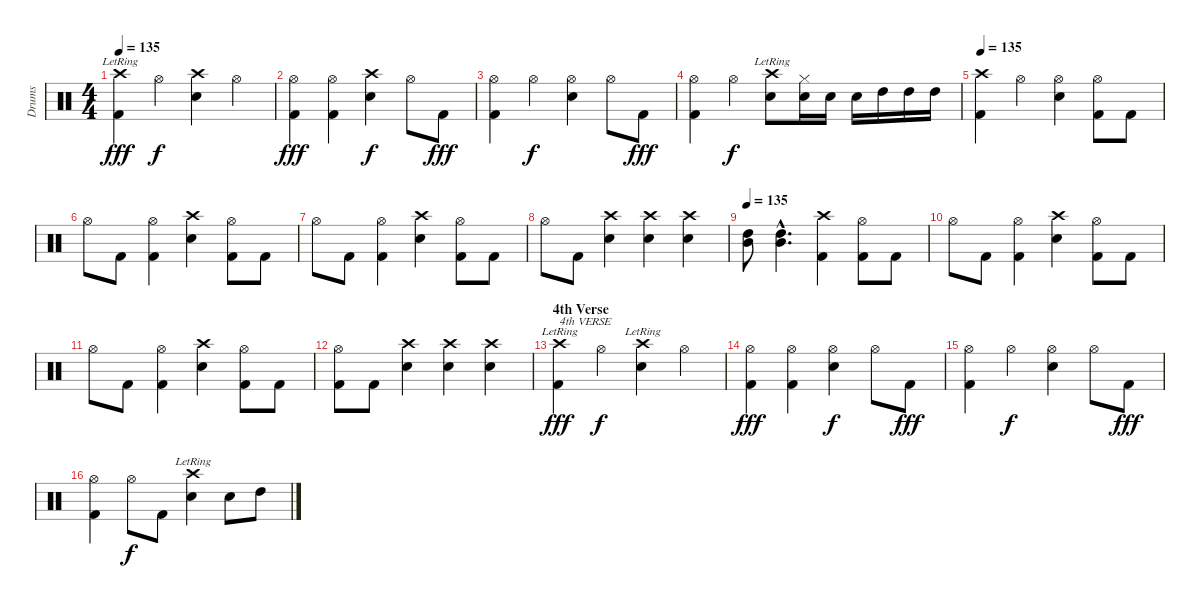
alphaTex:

\track ("Drums" "Drums") {instrument percussion}
\staff {score}
\articulation defaults
\ts (4 4)
\tempo 135
\clef neutral
\ks c
("Crash high (hit)"{lr} "Kick (hit) 2").4{dy fff} "Hi-Hat (open)".4{dy f} ("Crash high (hit)" "Snare (hit) 2").4 "Hi-Hat (open)".4 |
("Hi-Hat (open)" "Kick (hit) 2").4{dy fff} ("Hi-Hat (open)" "Kick (hit) 2").4 ("Crash high (hit)" "Snare (hit) 2").4{dy f} "Hi-Hat (open)".8 "Kick (hit) 2".8{dy fff} |
("Hi-Hat (open)" "Kick (hit) 2").4 "Hi-Hat (open)".4{dy f} ("Hi-Hat (open)" "Snare (hit) 2").4 "Hi-Hat (open)".8 "Kick (hit) 2".8{dy fff} |
("Hi-Hat (open)" "Kick (hit) 2").4 "Hi-Hat (open)".4{dy f} ("Crash high (hit)"{lr} "Snare (hit) 2").8 ("Hi-Hat (closed)" "Snare (hit) 2").16 "Snare (hit) 2".16 "Snare (hit) 2".16 "High Tom (hit)".16 "High Tom (hit)".16 "High Tom (hit)".16 |
\tempo 135
("Crash high (hit)" "Kick (hit) 2").4 "Hi-Hat (open)".4 ("Hi-Hat (open)" "Snare (hit) 2").4 ("Hi-Hat (open)" "Kick (hit) 2").8 "Kick (hit) 2".8 |
"Hi-Hat (open)".8 "Kick (hit) 2".8 ("Hi-Hat (open)" "Kick (hit) 2").4 ("Crash high (hit)" "Snare (hit) 2").4 ("Hi-Hat (open)" "Kick (hit) 2").8 "Kick (hit) 2".8 |
"Hi-Hat (open)".8 "Kick (hit) 2".8 ("Hi-Hat (open)" "Kick (hit) 2").4 ("Crash high (hit)" "Snare (hit) 2").4 ("Hi-Hat (open)" "Kick (hit) 2").8 "Kick (hit) 2".8 |
"Hi-Hat (open)".8 "Kick (hit) 2".8 ("Crash high (hit)" "Snare (hit) 2").4 ("Crash high (hit)" "Snare (hit) 2").4 ("Crash high (hit)" "Snare (hit) 2").4 |
\tempo 135
("High Tom (hit)" "Mid Tom (hit)").8 ("High Tom (hit)"{hac} "Mid Tom (hit)"{hac}).4{d} ("Crash high (hit)" "Kick (hit) 2").4 ("Hi-Hat (open)" "Kick (hit) 2").8 "Kick (hit) 2".8 |
"Hi-Hat (open)".8 "Kick (hit) 2".8 ("Hi-Hat (open)" "Kick (hit) 2").4 ("Crash high (hit)" "Snare (hit) 2").4 ("Hi-Hat (open)" "Kick (hit) 2").8 "Kick (hit) 2".8 |
"Hi-Hat (open)".8 "Kick (hit) 2".8 ("Hi-Hat (open)" "Kick (hit) 2").4 ("Crash high (hit)" "Snare (hit) 2").4 ("Hi-Hat (open)" "Kick (hit) 2").8 "Kick (hit) 2".8 |
("Hi-Hat (open)" "Kick (hit) 2").8 "Kick (hit) 2".8 ("Crash high (hit)" "Snare (hit) 2").4 ("Crash high (hit)" "Snare (hit) 2").4 ("Crash high (hit)" "Snare (hit) 2").4 |
\section ("" "4th Verse")
("Crash high (hit)"{lr} "Kick (hit) 2").4{txt "4th VERSE" dy fff} "Hi-Hat (open)".4{dy f} ("Crash high (hit)"{lr} "Snare (hit) 2").4 "Hi-Hat (open)".4 |
("Hi-Hat (open)" "Kick (hit) 2").4{dy fff} ("Hi-Hat (open)" "Kick (hit) 2").4 ("Hi-Hat (open)" "Snare (hit) 2").4{dy f} "Hi-Hat (open)".8 "Kick (hit) 2".8{dy fff} |
("Hi-Hat (open)" "Kick (hit) 2").4 "Hi-Hat (open)".4{dy f} ("Hi-Hat (open)" "Snare (hit) 2").4 "Hi-Hat (open)".8 "Kick (hit) 2".8{dy fff} |
("Hi-Hat (open)" "Kick (hit) 2").4 "Hi-Hat (open)".8{dy f} "Kick (hit) 2".8 ("Crash high (hit)"{lr} "Snare (hit) 2").4 "Snare (hit) 2".8 "High Tom (hit)".8
